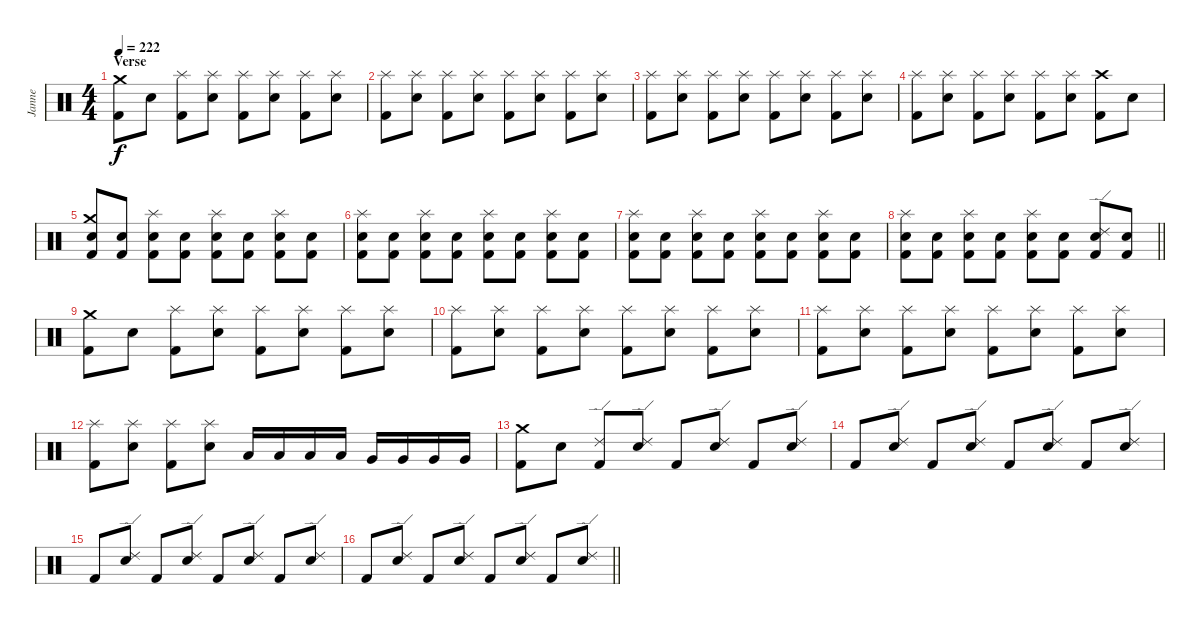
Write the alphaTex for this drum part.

\track ("Janne" "Janne") {instrument percussion}
\staff {score}
\articulation defaults
\ts (4 4)
\section ("" "Verse")
\tempo 222
\clef neutral
\ks c
("Kick (hit) 2" "Crash medium (hit)").8{dy f} "Electric Snare (hit)".8 ("Kick (hit) 2" "Splash (hit)").8 ("Electric Snare (hit)" "Splash (hit)").8 ("Kick (hit) 2" "Splash (hit)").8 ("Electric Snare (hit)" "Splash (hit)").8 ("Kick (hit) 2" "Splash (hit)").8 ("Electric Snare (hit)" "Splash (hit)").8 |
("Kick (hit) 2" "Splash (hit)").8 ("Electric Snare (hit)" "Splash (hit)").8 ("Kick (hit) 2" "Splash (hit)").8 ("Electric Snare (hit)" "Splash (hit)").8 ("Kick (hit) 2" "Splash (hit)").8 ("Electric Snare (hit)" "Splash (hit)").8 ("Kick (hit) 2" "Splash (hit)").8 ("Electric Snare (hit)" "Splash (hit)").8 |
("Kick (hit) 2" "Splash (hit)").8 ("Electric Snare (hit)" "Splash (hit)").8 ("Kick (hit) 2" "Splash (hit)").8 ("Electric Snare (hit)" "Splash (hit)").8 ("Kick (hit) 2" "Splash (hit)").8 ("Electric Snare (hit)" "Splash (hit)").8 ("Kick (hit) 2" "Splash (hit)").8 ("Electric Snare (hit)" "Splash (hit)").8 |
("Kick (hit) 2" "Splash (hit)").8 ("Electric Snare (hit)" "Splash (hit)").8 ("Kick (hit) 2" "Splash (hit)").8 ("Electric Snare (hit)" "Splash (hit)").8 ("Kick (hit) 2" "Splash (hit)").8 ("Electric Snare (hit)" "Splash (hit)").8 ("Kick (hit) 2" "Crash high (hit)").8 "Electric Snare (hit)".8 |
("Kick (hit) 2" "Electric Snare (hit)" "Crash medium (hit)").8 ("Kick (hit) 2" "Electric Snare (hit)").8 ("Kick (hit) 2" "Electric Snare (hit)" "Splash (hit)").8 ("Kick (hit) 2" "Electric Snare (hit)").8 ("Kick (hit) 2" "Electric Snare (hit)" "Splash (hit)").8 ("Kick (hit) 2" "Electric Snare (hit)").8 ("Kick (hit) 2" "Electric Snare (hit)" "Splash (hit)").8 ("Kick (hit) 2" "Electric Snare (hit)").8 |
("Kick (hit) 2" "Electric Snare (hit)" "Splash (hit)").8 ("Kick (hit) 2" "Electric Snare (hit)").8 ("Kick (hit) 2" "Electric Snare (hit)" "Splash (hit)").8 ("Kick (hit) 2" "Electric Snare (hit)").8 ("Kick (hit) 2" "Electric Snare (hit)" "Splash (hit)").8 ("Kick (hit) 2" "Electric Snare (hit)").8 ("Kick (hit) 2" "Electric Snare (hit)" "Splash (hit)").8 ("Kick (hit) 2" "Electric Snare (hit)").8 |
("Kick (hit) 2" "Electric Snare (hit)" "Splash (hit)").8 ("Kick (hit) 2" "Electric Snare (hit)").8 ("Kick (hit) 2" "Electric Snare (hit)" "Splash (hit)").8 ("Kick (hit) 2" "Electric Snare (hit)").8 ("Kick (hit) 2" "Electric Snare (hit)" "Splash (hit)").8 ("Kick (hit) 2" "Electric Snare (hit)").8 ("Kick (hit) 2" "Electric Snare (hit)" "Splash (hit)").8 ("Kick (hit) 2" "Electric Snare (hit)").8 |
\barLineRight lightlight
("Kick (hit) 2" "Electric Snare (hit)" "Splash (hit)").8 ("Kick (hit) 2" "Electric Snare (hit)").8 ("Kick (hit) 2" "Electric Snare (hit)" "Splash (hit)").8 ("Kick (hit) 2" "Electric Snare (hit)").8 ("Kick (hit) 2" "Electric Snare (hit)" "Splash (hit)").8 ("Kick (hit) 2" "Electric Snare (hit)").8 ("Kick (hit) 2" "Electric Snare (hit)" "Ride (edge) 2").8 ("Kick (hit) 2" "Electric Snare (hit)").8 |
\section ("" "")
("Kick (hit) 2" "Crash medium (hit)").8 "Electric Snare (hit)".8 ("Kick (hit) 2" "Splash (hit)").8 ("Electric Snare (hit)" "Splash (hit)").8 ("Kick (hit) 2" "Splash (hit)").8 ("Electric Snare (hit)" "Splash (hit)").8 ("Kick (hit) 2" "Splash (hit)").8 ("Electric Snare (hit)" "Splash (hit)").8 |
("Kick (hit) 2" "Splash (hit)").8 ("Electric Snare (hit)" "Splash (hit)").8 ("Kick (hit) 2" "Splash (hit)").8 ("Electric Snare (hit)" "Splash (hit)").8 ("Kick (hit) 2" "Splash (hit)").8 ("Electric Snare (hit)" "Splash (hit)").8 ("Kick (hit) 2" "Splash (hit)").8 ("Electric Snare (hit)" "Splash (hit)").8 |
("Kick (hit) 2" "Splash (hit)").8 ("Electric Snare (hit)" "Splash (hit)").8 ("Kick (hit) 2" "Splash (hit)").8 ("Electric Snare (hit)" "Splash (hit)").8 ("Kick (hit) 2" "Splash (hit)").8 ("Electric Snare (hit)" "Splash (hit)").8 ("Kick (hit) 2" "Splash (hit)").8 ("Electric Snare (hit)" "Splash (hit)").8 |
("Kick (hit) 2" "Splash (hit)").8 ("Electric Snare (hit)" "Splash (hit)").8 ("Kick (hit) 2" "Splash (hit)").8 ("Electric Snare (hit)" "Splash (hit)").8 "Low Tom (hit)".16 "Low Tom (hit)".16 "Low Tom (hit)".16 "Low Tom (hit)".16 "Very Low Tom (hit)".16 "Very Low Tom (hit)".16 "Very Low Tom (hit)".16 "Very Low Tom (hit)".16 |
("Kick (hit) 2" "Crash medium (hit)").8 "Electric Snare (hit)".8 ("Kick (hit) 2" "Ride (edge) 2").8 ("Electric Snare (hit)" "Ride (edge) 2").8 "Kick (hit) 2".8 ("Electric Snare (hit)" "Ride (edge) 2").8 "Kick (hit) 2".8 ("Electric Snare (hit)" "Ride (edge) 2").8 |
"Kick (hit) 2".8 ("Electric Snare (hit)" "Ride (edge) 2").8 "Kick (hit) 2".8 ("Electric Snare (hit)" "Ride (edge) 2").8 "Kick (hit) 2".8 ("Electric Snare (hit)" "Ride (edge) 2").8 "Kick (hit) 2".8 ("Electric Snare (hit)" "Ride (edge) 2").8 |
"Kick (hit) 2".8 ("Electric Snare (hit)" "Ride (edge) 2").8 "Kick (hit) 2".8 ("Electric Snare (hit)" "Ride (edge) 2").8 "Kick (hit) 2".8 ("Electric Snare (hit)" "Ride (edge) 2").8 "Kick (hit) 2".8 ("Electric Snare (hit)" "Ride (edge) 2").8 |
\barLineRight lightlight "Kick (hit) 2".8
("Electric Snare (hit)" "Ride (edge) 2").8 "Kick (hit) 2".8 ("Electric Snare (hit)" "Ride (edge) 2").8 "Kick (hit) 2".8 ("Electric Snare (hit)" "Ride (edge) 2").8 "Kick (hit) 2".8 ("Electric Snare (hit)" "Ride (edge) 2").8
